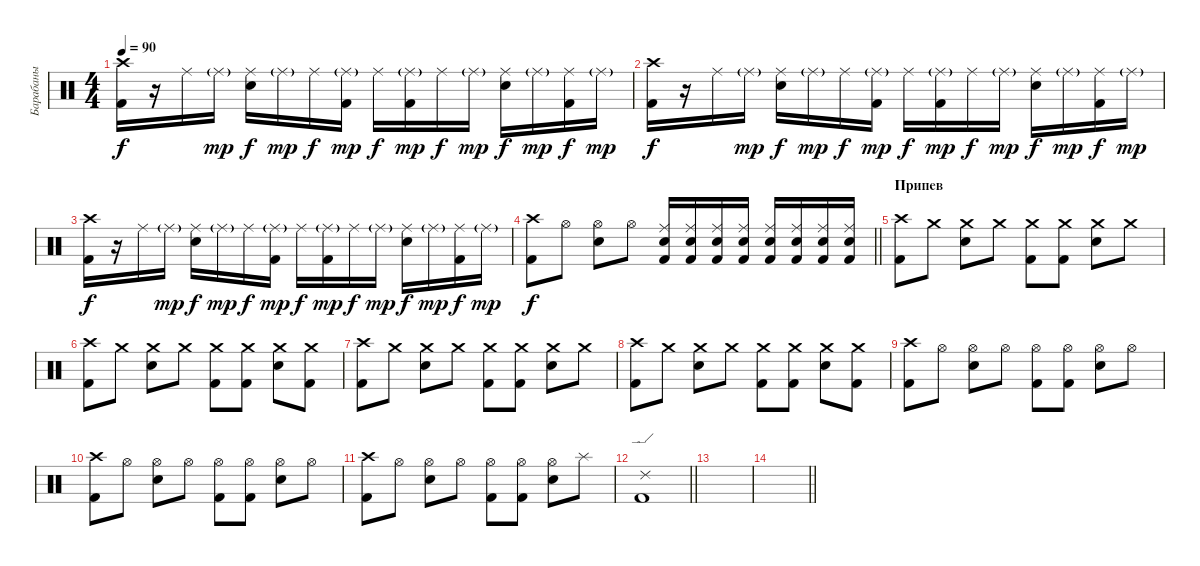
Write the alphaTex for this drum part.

\track ("Барабаны" "Барабаны") {instrument percussion}
\staff {score}
\articulation defaults
\ts (4 4)
\tempo 90
\clef neutral
\ks c
("Kick (hit) 2" "Crash high (hit)").16{dy f} r.16 "Ride (middle)".16 "Ride (middle)"{g}.16{dy mp} ("Snare (hit) 2" "Ride (middle)").16{dy f} "Ride (middle)"{g}.16{dy mp} "Ride (middle)".16{dy f} ("Kick (hit) 2" "Ride (middle)"{g}).16{dy mp} "Ride (middle)".16{dy f} ("Kick (hit) 2" "Ride (middle)"{g}).16{dy mp} "Ride (middle)".16{dy f} "Ride (middle)"{g}.16{dy mp} ("Snare (hit) 2" "Ride (middle)").16{dy f} "Ride (middle)"{g}.16{dy mp} ("Kick (hit) 2" "Ride (middle)").16{dy f} "Ride (middle)"{g}.16{dy mp} |
("Kick (hit) 2" "Crash high (hit)").16{dy f} r.16 "Ride (middle)".16 "Ride (middle)"{g}.16{dy mp} ("Snare (hit) 2" "Ride (middle)").16{dy f} "Ride (middle)"{g}.16{dy mp} "Ride (middle)".16{dy f} ("Kick (hit) 2" "Ride (middle)"{g}).16{dy mp} "Ride (middle)".16{dy f} ("Kick (hit) 2" "Ride (middle)"{g}).16{dy mp} "Ride (middle)".16{dy f} "Ride (middle)"{g}.16{dy mp} ("Snare (hit) 2" "Ride (middle)").16{dy f} "Ride (middle)"{g}.16{dy mp} ("Kick (hit) 2" "Ride (middle)").16{dy f} "Ride (middle)"{g}.16{dy mp} |
("Kick (hit) 2" "Crash high (hit)").16{dy f} r.16 "Ride (middle)".16 "Ride (middle)"{g}.16{dy mp} ("Snare (hit) 2" "Ride (middle)").16{dy f} "Ride (middle)"{g}.16{dy mp} "Ride (middle)".16{dy f} ("Kick (hit) 2" "Ride (middle)"{g}).16{dy mp} "Ride (middle)".16{dy f} ("Kick (hit) 2" "Ride (middle)"{g}).16{dy mp} "Ride (middle)".16{dy f} "Ride (middle)"{g}.16{dy mp} ("Snare (hit) 2" "Ride (middle)").16{dy f} "Ride (middle)"{g}.16{dy mp} ("Kick (hit) 2" "Ride (middle)").16{dy f} "Ride (middle)"{g}.16{dy mp} |
\barLineRight lightlight
("Kick (hit) 2" "Crash high (hit)").8{dy f} "Hi-Hat (open)".8 ("Snare (hit) 2" "Hi-Hat (open)").8 "Hi-Hat (open)".8 ("Kick (hit) 2" "Snare (hit) 2" "Ride (middle)").16 ("Kick (hit) 2" "Snare (hit) 2" "Ride (middle)").16 ("Kick (hit) 2" "Snare (hit) 2" "Ride (middle)").16 ("Kick (hit) 2" "Snare (hit) 2" "Ride (middle)").16 ("Kick (hit) 2" "Snare (hit) 2" "Ride (middle)").16 ("Kick (hit) 2" "Snare (hit) 2" "Ride (middle)").16 ("Kick (hit) 2" "Snare (hit) 2" "Ride (middle)").16 ("Kick (hit) 2" "Snare (hit) 2" "Ride (middle)").16 |
\section ("" "Припев")
("Kick (hit) 2" "Crash high (hit)").8 "Crash medium (hit)".8 ("Snare (hit) 2" "Crash medium (hit)").8 "Crash medium (hit)".8 ("Kick (hit) 2" "Crash medium (hit)").8 ("Kick (hit) 2" "Crash medium (hit)").8 ("Snare (hit) 2" "Crash medium (hit)").8 "Crash medium (hit)".8 |
("Kick (hit) 2" "Crash high (hit)").8 "Crash medium (hit)".8 ("Snare (hit) 2" "Crash medium (hit)").8 "Crash medium (hit)".8 ("Kick (hit) 2" "Crash medium (hit)").8 ("Kick (hit) 2" "Crash medium (hit)").8 ("Snare (hit) 2" "Crash medium (hit)").8 ("Crash medium (hit)" "Kick (hit) 2").8 |
("Kick (hit) 2" "Crash high (hit)").8 "Crash medium (hit)".8 ("Snare (hit) 2" "Crash medium (hit)").8 "Crash medium (hit)".8 ("Kick (hit) 2" "Crash medium (hit)").8 ("Kick (hit) 2" "Crash medium (hit)").8 ("Snare (hit) 2" "Crash medium (hit)").8 "Crash medium (hit)".8 |
("Kick (hit) 2" "Crash high (hit)").8 "Crash medium (hit)".8 ("Snare (hit) 2" "Crash medium (hit)").8 "Crash medium (hit)".8 ("Kick (hit) 2" "Crash medium (hit)").8 ("Kick (hit) 2" "Crash medium (hit)").8 ("Snare (hit) 2" "Crash medium (hit)").8 ("Crash medium (hit)" "Kick (hit) 2").8 |
("Kick (hit) 2" "Crash high (hit)").8 "Hi-Hat (open)".8 ("Snare (hit) 2" "Hi-Hat (open)").8 "Hi-Hat (open)".8 ("Hi-Hat (open)" "Kick (hit) 2").8 ("Hi-Hat (open)" "Kick (hit) 2").8 ("Hi-Hat (open)" "Snare (hit) 2").8 "Hi-Hat (open)".8 |
("Kick (hit) 2" "Crash high (hit)").8 "Hi-Hat (open)".8 ("Snare (hit) 2" "Hi-Hat (open)").8 "Hi-Hat (open)".8 ("Hi-Hat (open)" "Kick (hit) 2").8 ("Hi-Hat (open)" "Kick (hit) 2").8 ("Hi-Hat (open)" "Snare (hit) 2").8 "Hi-Hat (open)".8 |
("Kick (hit) 2" "Crash high (hit)").8 "Hi-Hat (open)".8 ("Snare (hit) 2" "Hi-Hat (open)").8 "Hi-Hat (open)".8 ("Hi-Hat (open)" "Kick (hit) 2").8 ("Hi-Hat (open)" "Kick (hit) 2").8 ("Hi-Hat (open)" "Snare (hit) 2").8 "Splash (hit)".8 |
\barLineRight lightlight
("Kick (hit) 2" "Ride (edge) 2").1 |
|
\barLineRight lightlight
